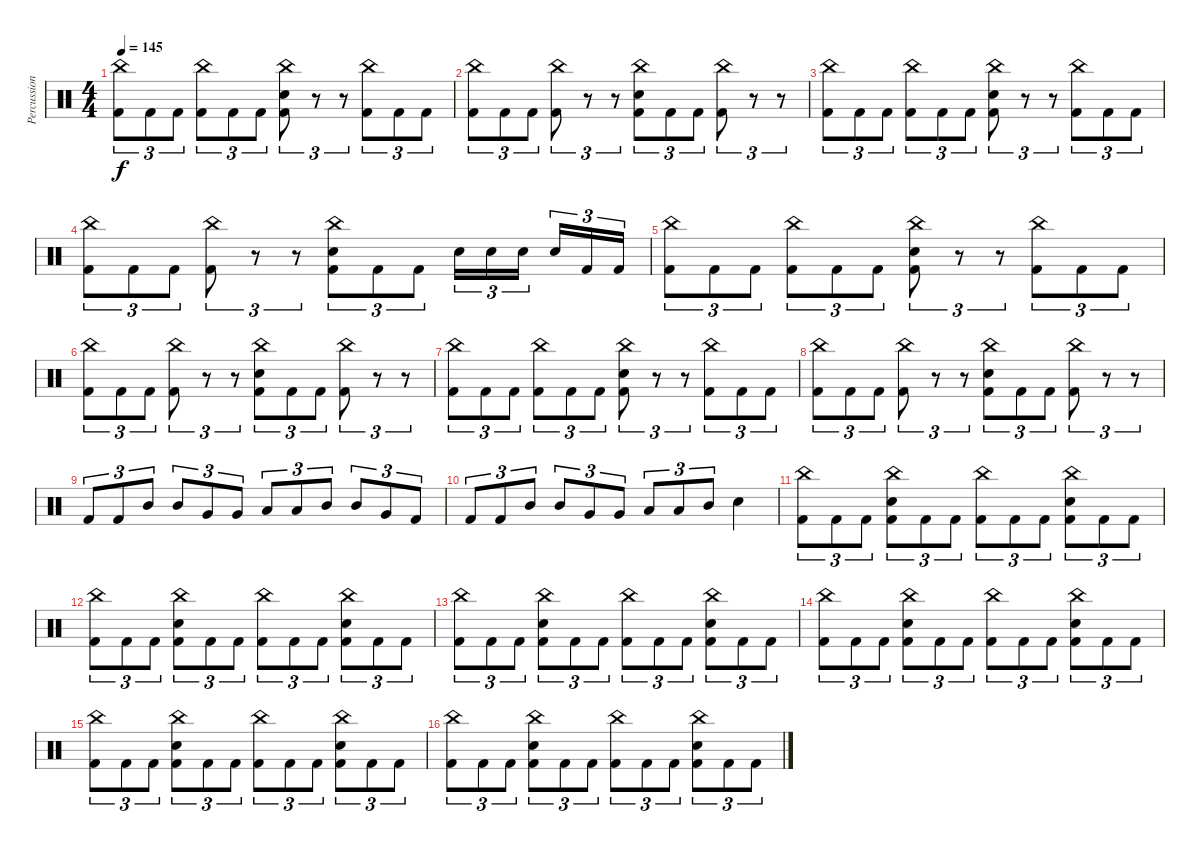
\track ("Percussion" "Percussion") {instrument percussion}
\staff {score}
\articulation defaults
\ts (4 4)
\tempo 145
\clef neutral
\ks c
("China (hit)" "Kick (hit) 2").8{tu (3 2) dy f} "Kick (hit) 2".8{tu (3 2)} "Kick (hit) 2".8{tu (3 2)} ("China (hit)" "Kick (hit) 2").8{tu (3 2)} "Kick (hit) 2".8{tu (3 2)} "Kick (hit) 2".8{tu (3 2)} ("China (hit)" "Electric Snare (hit)" "Kick (hit) 2").8{tu (3 2)} r.8{tu (3 2)} r.8{tu (3 2)} ("China (hit)" "Kick (hit) 2").8{tu (3 2)} "Kick (hit) 2".8{tu (3 2)} "Kick (hit) 2".8{tu (3 2)} |
("China (hit)" "Kick (hit) 2").8{tu (3 2)} "Kick (hit) 2".8{tu (3 2)} "Kick (hit) 2".8{tu (3 2)} ("China (hit)" "Kick (hit) 2").8{tu (3 2)} r.8{tu (3 2)} r.8{tu (3 2)} ("China (hit)" "Electric Snare (hit)" "Kick (hit) 2").8{tu (3 2)} "Kick (hit) 2".8{tu (3 2)} "Kick (hit) 2".8{tu (3 2)} ("China (hit)" "Kick (hit) 2").8{tu (3 2)} r.8{tu (3 2)} r.8{tu (3 2)} |
("China (hit)" "Kick (hit) 2").8{tu (3 2)} "Kick (hit) 2".8{tu (3 2)} "Kick (hit) 2".8{tu (3 2)} ("China (hit)" "Kick (hit) 2").8{tu (3 2)} "Kick (hit) 2".8{tu (3 2)} "Kick (hit) 2".8{tu (3 2)} ("China (hit)" "Electric Snare (hit)" "Kick (hit) 2").8{tu (3 2)} r.8{tu (3 2)} r.8{tu (3 2)} ("China (hit)" "Kick (hit) 2").8{tu (3 2)} "Kick (hit) 2".8{tu (3 2)} "Kick (hit) 2".8{tu (3 2)} |
("China (hit)" "Kick (hit) 2").8{tu (3 2)} "Kick (hit) 2".8{tu (3 2)} "Kick (hit) 2".8{tu (3 2)} ("China (hit)" "Kick (hit) 2").8{tu (3 2)} r.8{tu (3 2)} r.8{tu (3 2)} ("China (hit)" "Electric Snare (hit)" "Kick (hit) 2").8{tu (3 2)} "Kick (hit) 2".8{tu (3 2)} "Kick (hit) 2".8{tu (3 2)} "Electric Snare (hit)".16{tu (3 2)} "Electric Snare (hit)".16{tu (3 2)} "Electric Snare (hit)".16{tu (3 2) beam splitsecondary} "Electric Snare (hit)".16{tu (3 2)} "Kick (hit) 2".16{tu (3 2)} "Kick (hit) 2".16{tu (3 2)} |
("China (hit)" "Kick (hit) 2").8{tu (3 2)} "Kick (hit) 2".8{tu (3 2)} "Kick (hit) 2".8{tu (3 2)} ("China (hit)" "Kick (hit) 2").8{tu (3 2)} "Kick (hit) 2".8{tu (3 2)} "Kick (hit) 2".8{tu (3 2)} ("China (hit)" "Electric Snare (hit)" "Kick (hit) 2").8{tu (3 2)} r.8{tu (3 2)} r.8{tu (3 2)} ("China (hit)" "Kick (hit) 2").8{tu (3 2)} "Kick (hit) 2".8{tu (3 2)} "Kick (hit) 2".8{tu (3 2)} |
("China (hit)" "Kick (hit) 2").8{tu (3 2)} "Kick (hit) 2".8{tu (3 2)} "Kick (hit) 2".8{tu (3 2)} ("China (hit)" "Kick (hit) 2").8{tu (3 2)} r.8{tu (3 2)} r.8{tu (3 2)} ("China (hit)" "Electric Snare (hit)" "Kick (hit) 2").8{tu (3 2)} "Kick (hit) 2".8{tu (3 2)} "Kick (hit) 2".8{tu (3 2)} ("China (hit)" "Kick (hit) 2").8{tu (3 2)} r.8{tu (3 2)} r.8{tu (3 2)} |
("China (hit)" "Kick (hit) 2").8{tu (3 2)} "Kick (hit) 2".8{tu (3 2)} "Kick (hit) 2".8{tu (3 2)} ("China (hit)" "Kick (hit) 2").8{tu (3 2)} "Kick (hit) 2".8{tu (3 2)} "Kick (hit) 2".8{tu (3 2)} ("China (hit)" "Electric Snare (hit)" "Kick (hit) 2").8{tu (3 2)} r.8{tu (3 2)} r.8{tu (3 2)} ("China (hit)" "Kick (hit) 2").8{tu (3 2)} "Kick (hit) 2".8{tu (3 2)} "Kick (hit) 2".8{tu (3 2)} |
("China (hit)" "Kick (hit) 2").8{tu (3 2)} "Kick (hit) 2".8{tu (3 2)} "Kick (hit) 2".8{tu (3 2)} ("China (hit)" "Kick (hit) 2").8{tu (3 2)} r.8{tu (3 2)} r.8{tu (3 2)} ("China (hit)" "Electric Snare (hit)" "Kick (hit) 2").8{tu (3 2)} "Kick (hit) 2".8{tu (3 2)} "Kick (hit) 2".8{tu (3 2)} ("China (hit)" "Kick (hit) 2").8{tu (3 2)} r.8{tu (3 2)} r.8{tu (3 2)} |
"Kick (hit) 2".8{tu (3 2)} "Kick (hit) 2".8{tu (3 2)} "Mid Tom (hit)".8{tu (3 2)} "Mid Tom (hit)".8{tu (3 2)} "Very Low Tom (hit)".8{tu (3 2)} "Very Low Tom (hit)".8{tu (3 2)} "Low Tom (hit)".8{tu (3 2)} "Low Tom (hit)".8{tu (3 2)} "Mid Tom (hit)".8{tu (3 2)} "Mid Tom (hit)".8{tu (3 2)} "Very Low Tom (hit)".8{tu (3 2)} "Kick (hit) 2".8{tu (3 2)} |
"Kick (hit) 2".8{tu (3 2)} "Kick (hit) 2".8{tu (3 2)} "Mid Tom (hit)".8{tu (3 2)} "Mid Tom (hit)".8{tu (3 2)} "Very Low Tom (hit)".8{tu (3 2)} "Very Low Tom (hit)".8{tu (3 2)} "Low Tom (hit)".8{tu (3 2)} "Low Tom (hit)".8{tu (3 2)} "Mid Tom (hit)".8{tu (3 2)} "Electric Snare (hit)".4 |
("China (hit)" "Kick (hit) 2").8{tu (3 2)} "Kick (hit) 2".8{tu (3 2)} "Kick (hit) 2".8{tu (3 2)} ("China (hit)" "Electric Snare (hit)" "Kick (hit) 2").8{tu (3 2)} "Kick (hit) 2".8{tu (3 2)} "Kick (hit) 2".8{tu (3 2)} ("China (hit)" "Kick (hit) 2").8{tu (3 2)} "Kick (hit) 2".8{tu (3 2)} "Kick (hit) 2".8{tu (3 2)} ("China (hit)" "Electric Snare (hit)" "Kick (hit) 2").8{tu (3 2)} "Kick (hit) 2".8{tu (3 2)} "Kick (hit) 2".8{tu (3 2)} |
("China (hit)" "Kick (hit) 2").8{tu (3 2)} "Kick (hit) 2".8{tu (3 2)} "Kick (hit) 2".8{tu (3 2)} ("China (hit)" "Electric Snare (hit)" "Kick (hit) 2").8{tu (3 2)} "Kick (hit) 2".8{tu (3 2)} "Kick (hit) 2".8{tu (3 2)} ("China (hit)" "Kick (hit) 2").8{tu (3 2)} "Kick (hit) 2".8{tu (3 2)} "Kick (hit) 2".8{tu (3 2)} ("China (hit)" "Electric Snare (hit)" "Kick (hit) 2").8{tu (3 2)} "Kick (hit) 2".8{tu (3 2)} "Kick (hit) 2".8{tu (3 2)} |
("China (hit)" "Kick (hit) 2").8{tu (3 2)} "Kick (hit) 2".8{tu (3 2)} "Kick (hit) 2".8{tu (3 2)} ("China (hit)" "Electric Snare (hit)" "Kick (hit) 2").8{tu (3 2)} "Kick (hit) 2".8{tu (3 2)} "Kick (hit) 2".8{tu (3 2)} ("China (hit)" "Kick (hit) 2").8{tu (3 2)} "Kick (hit) 2".8{tu (3 2)} "Kick (hit) 2".8{tu (3 2)} ("China (hit)" "Electric Snare (hit)" "Kick (hit) 2").8{tu (3 2)} "Kick (hit) 2".8{tu (3 2)} "Kick (hit) 2".8{tu (3 2)} |
("China (hit)" "Kick (hit) 2").8{tu (3 2)} "Kick (hit) 2".8{tu (3 2)} "Kick (hit) 2".8{tu (3 2)} ("China (hit)" "Electric Snare (hit)" "Kick (hit) 2").8{tu (3 2)} "Kick (hit) 2".8{tu (3 2)} "Kick (hit) 2".8{tu (3 2)} ("China (hit)" "Kick (hit) 2").8{tu (3 2)} "Kick (hit) 2".8{tu (3 2)} "Kick (hit) 2".8{tu (3 2)} ("China (hit)" "Electric Snare (hit)" "Kick (hit) 2").8{tu (3 2)} "Kick (hit) 2".8{tu (3 2)} "Kick (hit) 2".8{tu (3 2)} |
("China (hit)" "Kick (hit) 2").8{tu (3 2)} "Kick (hit) 2".8{tu (3 2)} "Kick (hit) 2".8{tu (3 2)} ("China (hit)" "Electric Snare (hit)" "Kick (hit) 2").8{tu (3 2)} "Kick (hit) 2".8{tu (3 2)} "Kick (hit) 2".8{tu (3 2)} ("China (hit)" "Kick (hit) 2").8{tu (3 2)} "Kick (hit) 2".8{tu (3 2)} "Kick (hit) 2".8{tu (3 2)} ("China (hit)" "Electric Snare (hit)" "Kick (hit) 2").8{tu (3 2)} "Kick (hit) 2".8{tu (3 2)} "Kick (hit) 2".8{tu (3 2)} |
("China (hit)" "Kick (hit) 2").8{tu (3 2)} "Kick (hit) 2".8{tu (3 2)} "Kick (hit) 2".8{tu (3 2)} ("China (hit)" "Electric Snare (hit)" "Kick (hit) 2").8{tu (3 2)} "Kick (hit) 2".8{tu (3 2)} "Kick (hit) 2".8{tu (3 2)} ("China (hit)" "Kick (hit) 2").8{tu (3 2)} "Kick (hit) 2".8{tu (3 2)} "Kick (hit) 2".8{tu (3 2)} ("China (hit)" "Electric Snare (hit)" "Kick (hit) 2").8{tu (3 2)} "Kick (hit) 2".8{tu (3 2)} "Kick (hit) 2".8{tu (3 2)}
